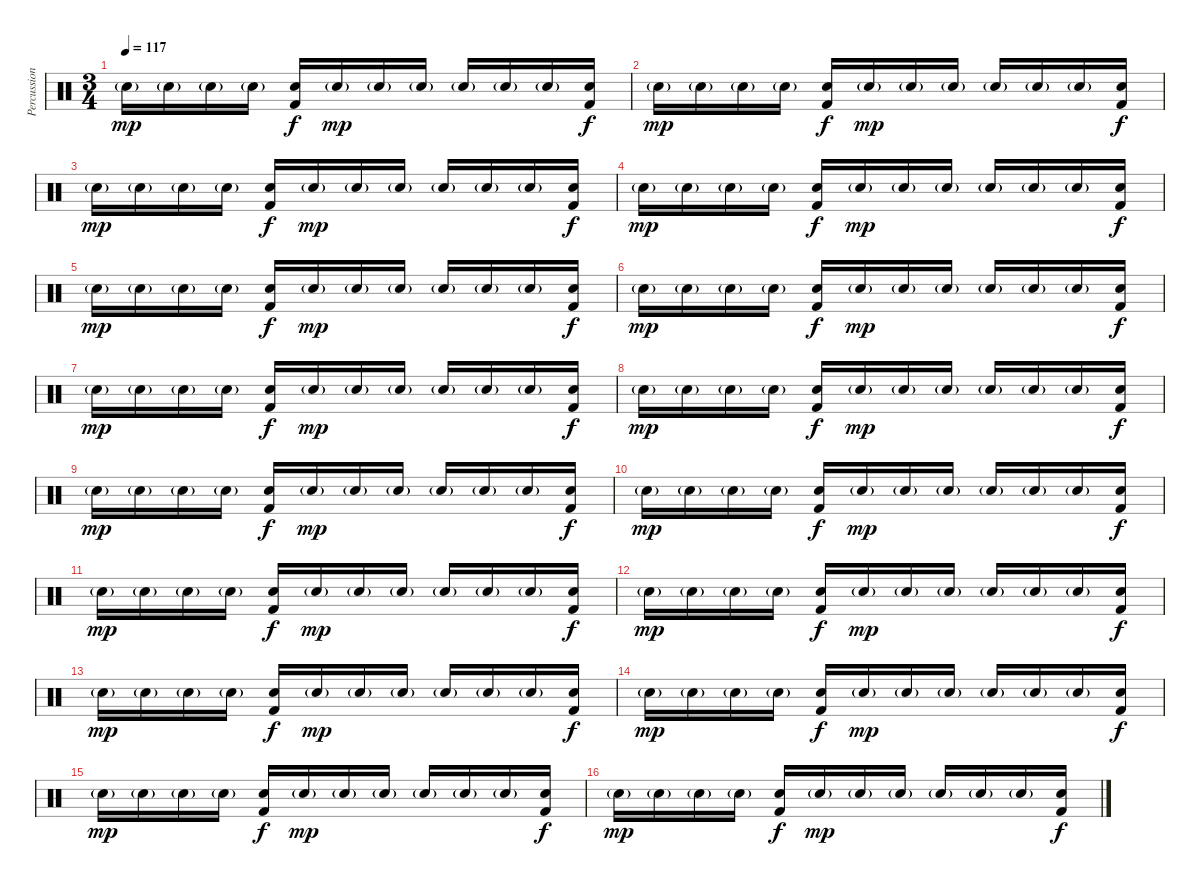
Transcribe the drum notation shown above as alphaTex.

\track ("Percussion" "Percussion") {instrument percussion}
\staff {score}
\articulation defaults
\ts (3 4)
\tempo 117
\clef neutral
\ks c "Electric Snare (hit)"{g}.16{dy mp volume 11} "Electric Snare (hit)"{g}.16 "Electric Snare (hit)"{g}.16 "Electric Snare (hit)"{g}.16
("Electric Snare (hit)" "Kick (hit) 2").16{dy f} "Electric Snare (hit)"{g}.16{dy mp} "Electric Snare (hit)"{g}.16 "Electric Snare (hit)"{g}.16 "Electric Snare (hit)"{g}.16 "Electric Snare (hit)"{g}.16 "Electric Snare (hit)"{g}.16 ("Electric Snare (hit)" "Kick (hit) 2").16{dy f} |
"Electric Snare (hit)"{g}.16{dy mp volume 11} "Electric Snare (hit)"{g}.16 "Electric Snare (hit)"{g}.16 "Electric Snare (hit)"{g}.16 ("Electric Snare (hit)" "Kick (hit) 2").16{dy f} "Electric Snare (hit)"{g}.16{dy mp} "Electric Snare (hit)"{g}.16 "Electric Snare (hit)"{g}.16 "Electric Snare (hit)"{g}.16 "Electric Snare (hit)"{g}.16 "Electric Snare (hit)"{g}.16 ("Electric Snare (hit)" "Kick (hit) 2").16{dy f} |
"Electric Snare (hit)"{g}.16{dy mp volume 11} "Electric Snare (hit)"{g}.16 "Electric Snare (hit)"{g}.16 "Electric Snare (hit)"{g}.16 ("Electric Snare (hit)" "Kick (hit) 2").16{dy f} "Electric Snare (hit)"{g}.16{dy mp} "Electric Snare (hit)"{g}.16 "Electric Snare (hit)"{g}.16 "Electric Snare (hit)"{g}.16 "Electric Snare (hit)"{g}.16 "Electric Snare (hit)"{g}.16 ("Electric Snare (hit)" "Kick (hit) 2").16{dy f} |
"Electric Snare (hit)"{g}.16{dy mp volume 11} "Electric Snare (hit)"{g}.16 "Electric Snare (hit)"{g}.16 "Electric Snare (hit)"{g}.16 ("Electric Snare (hit)" "Kick (hit) 2").16{dy f} "Electric Snare (hit)"{g}.16{dy mp} "Electric Snare (hit)"{g}.16 "Electric Snare (hit)"{g}.16 "Electric Snare (hit)"{g}.16 "Electric Snare (hit)"{g}.16 "Electric Snare (hit)"{g}.16 ("Electric Snare (hit)" "Kick (hit) 2").16{dy f} |
"Electric Snare (hit)"{g}.16{dy mp volume 11} "Electric Snare (hit)"{g}.16 "Electric Snare (hit)"{g}.16 "Electric Snare (hit)"{g}.16 ("Electric Snare (hit)" "Kick (hit) 2").16{dy f} "Electric Snare (hit)"{g}.16{dy mp} "Electric Snare (hit)"{g}.16 "Electric Snare (hit)"{g}.16 "Electric Snare (hit)"{g}.16 "Electric Snare (hit)"{g}.16 "Electric Snare (hit)"{g}.16 ("Electric Snare (hit)" "Kick (hit) 2").16{dy f} |
"Electric Snare (hit)"{g}.16{dy mp volume 11} "Electric Snare (hit)"{g}.16 "Electric Snare (hit)"{g}.16 "Electric Snare (hit)"{g}.16 ("Electric Snare (hit)" "Kick (hit) 2").16{dy f} "Electric Snare (hit)"{g}.16{dy mp} "Electric Snare (hit)"{g}.16 "Electric Snare (hit)"{g}.16 "Electric Snare (hit)"{g}.16 "Electric Snare (hit)"{g}.16 "Electric Snare (hit)"{g}.16 ("Electric Snare (hit)" "Kick (hit) 2").16{dy f} |
"Electric Snare (hit)"{g}.16{dy mp volume 11} "Electric Snare (hit)"{g}.16 "Electric Snare (hit)"{g}.16 "Electric Snare (hit)"{g}.16 ("Electric Snare (hit)" "Kick (hit) 2").16{dy f} "Electric Snare (hit)"{g}.16{dy mp} "Electric Snare (hit)"{g}.16 "Electric Snare (hit)"{g}.16 "Electric Snare (hit)"{g}.16 "Electric Snare (hit)"{g}.16 "Electric Snare (hit)"{g}.16 ("Electric Snare (hit)" "Kick (hit) 2").16{dy f} |
"Electric Snare (hit)"{g}.16{dy mp volume 11} "Electric Snare (hit)"{g}.16 "Electric Snare (hit)"{g}.16 "Electric Snare (hit)"{g}.16 ("Electric Snare (hit)" "Kick (hit) 2").16{dy f} "Electric Snare (hit)"{g}.16{dy mp} "Electric Snare (hit)"{g}.16 "Electric Snare (hit)"{g}.16 "Electric Snare (hit)"{g}.16 "Electric Snare (hit)"{g}.16 "Electric Snare (hit)"{g}.16 ("Electric Snare (hit)" "Kick (hit) 2").16{dy f} |
"Electric Snare (hit)"{g}.16{dy mp volume 11} "Electric Snare (hit)"{g}.16 "Electric Snare (hit)"{g}.16 "Electric Snare (hit)"{g}.16 ("Electric Snare (hit)" "Kick (hit) 2").16{dy f} "Electric Snare (hit)"{g}.16{dy mp} "Electric Snare (hit)"{g}.16 "Electric Snare (hit)"{g}.16 "Electric Snare (hit)"{g}.16 "Electric Snare (hit)"{g}.16 "Electric Snare (hit)"{g}.16 ("Electric Snare (hit)" "Kick (hit) 2").16{dy f} |
"Electric Snare (hit)"{g}.16{dy mp volume 11} "Electric Snare (hit)"{g}.16 "Electric Snare (hit)"{g}.16 "Electric Snare (hit)"{g}.16 ("Electric Snare (hit)" "Kick (hit) 2").16{dy f} "Electric Snare (hit)"{g}.16{dy mp} "Electric Snare (hit)"{g}.16 "Electric Snare (hit)"{g}.16 "Electric Snare (hit)"{g}.16 "Electric Snare (hit)"{g}.16 "Electric Snare (hit)"{g}.16 ("Electric Snare (hit)" "Kick (hit) 2").16{dy f} |
"Electric Snare (hit)"{g}.16{dy mp volume 11} "Electric Snare (hit)"{g}.16 "Electric Snare (hit)"{g}.16 "Electric Snare (hit)"{g}.16 ("Electric Snare (hit)" "Kick (hit) 2").16{dy f} "Electric Snare (hit)"{g}.16{dy mp} "Electric Snare (hit)"{g}.16 "Electric Snare (hit)"{g}.16 "Electric Snare (hit)"{g}.16 "Electric Snare (hit)"{g}.16 "Electric Snare (hit)"{g}.16 ("Electric Snare (hit)" "Kick (hit) 2").16{dy f} |
"Electric Snare (hit)"{g}.16{dy mp volume 11} "Electric Snare (hit)"{g}.16 "Electric Snare (hit)"{g}.16 "Electric Snare (hit)"{g}.16 ("Electric Snare (hit)" "Kick (hit) 2").16{dy f} "Electric Snare (hit)"{g}.16{dy mp} "Electric Snare (hit)"{g}.16 "Electric Snare (hit)"{g}.16 "Electric Snare (hit)"{g}.16 "Electric Snare (hit)"{g}.16 "Electric Snare (hit)"{g}.16 ("Electric Snare (hit)" "Kick (hit) 2").16{dy f} |
"Electric Snare (hit)"{g}.16{dy mp volume 11} "Electric Snare (hit)"{g}.16 "Electric Snare (hit)"{g}.16 "Electric Snare (hit)"{g}.16 ("Electric Snare (hit)" "Kick (hit) 2").16{dy f} "Electric Snare (hit)"{g}.16{dy mp} "Electric Snare (hit)"{g}.16 "Electric Snare (hit)"{g}.16 "Electric Snare (hit)"{g}.16 "Electric Snare (hit)"{g}.16 "Electric Snare (hit)"{g}.16 ("Electric Snare (hit)" "Kick (hit) 2").16{dy f} |
"Electric Snare (hit)"{g}.16{dy mp volume 11} "Electric Snare (hit)"{g}.16 "Electric Snare (hit)"{g}.16 "Electric Snare (hit)"{g}.16 ("Electric Snare (hit)" "Kick (hit) 2").16{dy f} "Electric Snare (hit)"{g}.16{dy mp} "Electric Snare (hit)"{g}.16 "Electric Snare (hit)"{g}.16 "Electric Snare (hit)"{g}.16 "Electric Snare (hit)"{g}.16 "Electric Snare (hit)"{g}.16 ("Electric Snare (hit)" "Kick (hit) 2").16{dy f} |
"Electric Snare (hit)"{g}.16{dy mp volume 11} "Electric Snare (hit)"{g}.16 "Electric Snare (hit)"{g}.16 "Electric Snare (hit)"{g}.16 ("Electric Snare (hit)" "Kick (hit) 2").16{dy f} "Electric Snare (hit)"{g}.16{dy mp} "Electric Snare (hit)"{g}.16 "Electric Snare (hit)"{g}.16 "Electric Snare (hit)"{g}.16 "Electric Snare (hit)"{g}.16 "Electric Snare (hit)"{g}.16 ("Electric Snare (hit)" "Kick (hit) 2").16{dy f} |
"Electric Snare (hit)"{g}.16{dy mp volume 11} "Electric Snare (hit)"{g}.16 "Electric Snare (hit)"{g}.16 "Electric Snare (hit)"{g}.16 ("Electric Snare (hit)" "Kick (hit) 2").16{dy f} "Electric Snare (hit)"{g}.16{dy mp} "Electric Snare (hit)"{g}.16 "Electric Snare (hit)"{g}.16 "Electric Snare (hit)"{g}.16 "Electric Snare (hit)"{g}.16 "Electric Snare (hit)"{g}.16 ("Electric Snare (hit)" "Kick (hit) 2").16{dy f}
